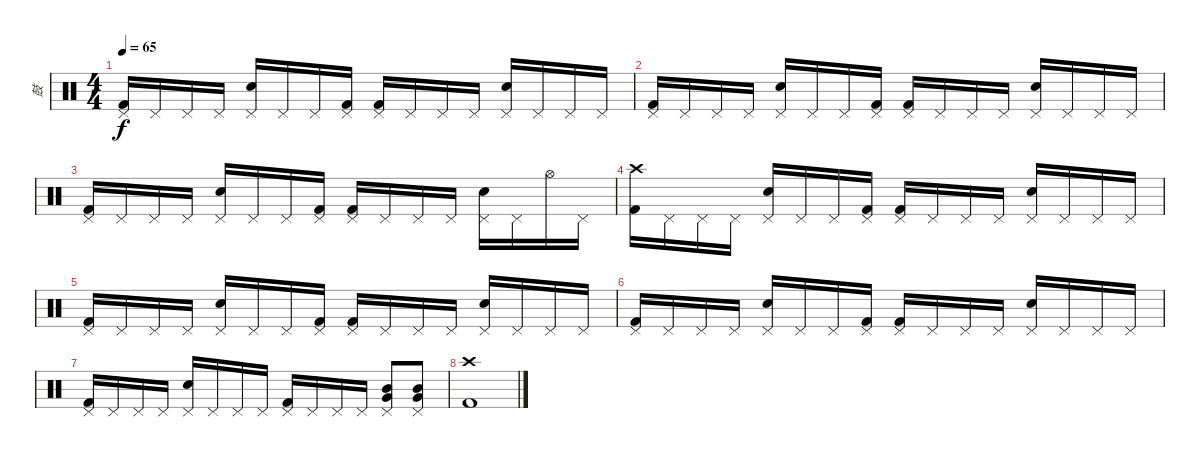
\track ("鼓" "鼓") {instrument percussion}
\staff {score}
\articulation defaults
\ts (4 4)
\tempo 65
\clef neutral
\ks c
("Pedal Hi-Hat (hit)" "Kick (hit) 2").16{dy f} "Pedal Hi-Hat (hit)".16 "Pedal Hi-Hat (hit)".16 "Pedal Hi-Hat (hit)".16 ("Pedal Hi-Hat (hit)" "Electric Snare (hit)").16 "Pedal Hi-Hat (hit)".16 "Pedal Hi-Hat (hit)".16 ("Pedal Hi-Hat (hit)" "Kick (hit) 2").16 ("Pedal Hi-Hat (hit)" "Kick (hit) 2").16 "Pedal Hi-Hat (hit)".16 "Pedal Hi-Hat (hit)".16 "Pedal Hi-Hat (hit)".16 ("Pedal Hi-Hat (hit)" "Electric Snare (hit)").16 "Pedal Hi-Hat (hit)".16 "Pedal Hi-Hat (hit)".16 "Pedal Hi-Hat (hit)".16 |
("Pedal Hi-Hat (hit)" "Kick (hit) 2").16 "Pedal Hi-Hat (hit)".16 "Pedal Hi-Hat (hit)".16 "Pedal Hi-Hat (hit)".16 ("Pedal Hi-Hat (hit)" "Electric Snare (hit)").16 "Pedal Hi-Hat (hit)".16 "Pedal Hi-Hat (hit)".16 ("Pedal Hi-Hat (hit)" "Kick (hit) 2").16 ("Pedal Hi-Hat (hit)" "Kick (hit) 2").16 "Pedal Hi-Hat (hit)".16 "Pedal Hi-Hat (hit)".16 "Pedal Hi-Hat (hit)".16 ("Pedal Hi-Hat (hit)" "Electric Snare (hit)").16 "Pedal Hi-Hat (hit)".16 "Pedal Hi-Hat (hit)".16 "Pedal Hi-Hat (hit)".16 |
("Pedal Hi-Hat (hit)" "Kick (hit) 2").16 "Pedal Hi-Hat (hit)".16 "Pedal Hi-Hat (hit)".16 "Pedal Hi-Hat (hit)".16 ("Pedal Hi-Hat (hit)" "Electric Snare (hit)").16 "Pedal Hi-Hat (hit)".16 "Pedal Hi-Hat (hit)".16 ("Pedal Hi-Hat (hit)" "Kick (hit) 2").16 ("Pedal Hi-Hat (hit)" "Kick (hit) 2").16 "Pedal Hi-Hat (hit)".16 "Pedal Hi-Hat (hit)".16 "Pedal Hi-Hat (hit)".16 ("Pedal Hi-Hat (hit)" "Electric Snare (hit)").16 "Pedal Hi-Hat (hit)".16 "Hi-Hat (open)".16 "Pedal Hi-Hat (hit)".16 |
("Crash high (hit)" "Kick (hit) 2").16 "Pedal Hi-Hat (hit)".16 "Pedal Hi-Hat (hit)".16 "Pedal Hi-Hat (hit)".16 ("Pedal Hi-Hat (hit)" "Electric Snare (hit)").16 "Pedal Hi-Hat (hit)".16 "Pedal Hi-Hat (hit)".16 ("Pedal Hi-Hat (hit)" "Kick (hit) 2").16 ("Pedal Hi-Hat (hit)" "Kick (hit) 2").16 "Pedal Hi-Hat (hit)".16 "Pedal Hi-Hat (hit)".16 "Pedal Hi-Hat (hit)".16 ("Pedal Hi-Hat (hit)" "Electric Snare (hit)").16 "Pedal Hi-Hat (hit)".16 "Pedal Hi-Hat (hit)".16 "Pedal Hi-Hat (hit)".16 |
("Pedal Hi-Hat (hit)" "Kick (hit) 2").16 "Pedal Hi-Hat (hit)".16 "Pedal Hi-Hat (hit)".16 "Pedal Hi-Hat (hit)".16 ("Pedal Hi-Hat (hit)" "Electric Snare (hit)").16 "Pedal Hi-Hat (hit)".16 "Pedal Hi-Hat (hit)".16 ("Pedal Hi-Hat (hit)" "Kick (hit) 2").16 ("Pedal Hi-Hat (hit)" "Kick (hit) 2").16 "Pedal Hi-Hat (hit)".16 "Pedal Hi-Hat (hit)".16 "Pedal Hi-Hat (hit)".16 ("Pedal Hi-Hat (hit)" "Electric Snare (hit)").16 "Pedal Hi-Hat (hit)".16 "Pedal Hi-Hat (hit)".16 "Pedal Hi-Hat (hit)".16 |
("Pedal Hi-Hat (hit)" "Kick (hit) 2").16 "Pedal Hi-Hat (hit)".16 "Pedal Hi-Hat (hit)".16 "Pedal Hi-Hat (hit)".16 ("Pedal Hi-Hat (hit)" "Electric Snare (hit)").16 "Pedal Hi-Hat (hit)".16 "Pedal Hi-Hat (hit)".16 ("Pedal Hi-Hat (hit)" "Kick (hit) 2").16 ("Pedal Hi-Hat (hit)" "Kick (hit) 2").16 "Pedal Hi-Hat (hit)".16 "Pedal Hi-Hat (hit)".16 "Pedal Hi-Hat (hit)".16 ("Pedal Hi-Hat (hit)" "Electric Snare (hit)").16 "Pedal Hi-Hat (hit)".16 "Pedal Hi-Hat (hit)".16 "Pedal Hi-Hat (hit)".16 |
("Pedal Hi-Hat (hit)" "Kick (hit) 2").16 "Pedal Hi-Hat (hit)".16 "Pedal Hi-Hat (hit)".16 "Pedal Hi-Hat (hit)".16 ("Pedal Hi-Hat (hit)" "Electric Snare (hit)").16 "Pedal Hi-Hat (hit)".16 "Pedal Hi-Hat (hit)".16 "Pedal Hi-Hat (hit)".16 ("Pedal Hi-Hat (hit)" "Kick (hit) 2").16 "Pedal Hi-Hat (hit)".16 "Pedal Hi-Hat (hit)".16 "Pedal Hi-Hat (hit)".16 ("Pedal Hi-Hat (hit)" "Mid Tom (hit)" "Very Low Tom (hit)").8 ("Pedal Hi-Hat (hit)" "Mid Tom (hit)" "Very Low Tom (hit)").8 |
("Crash high (hit)" "Kick (hit) 2").1
